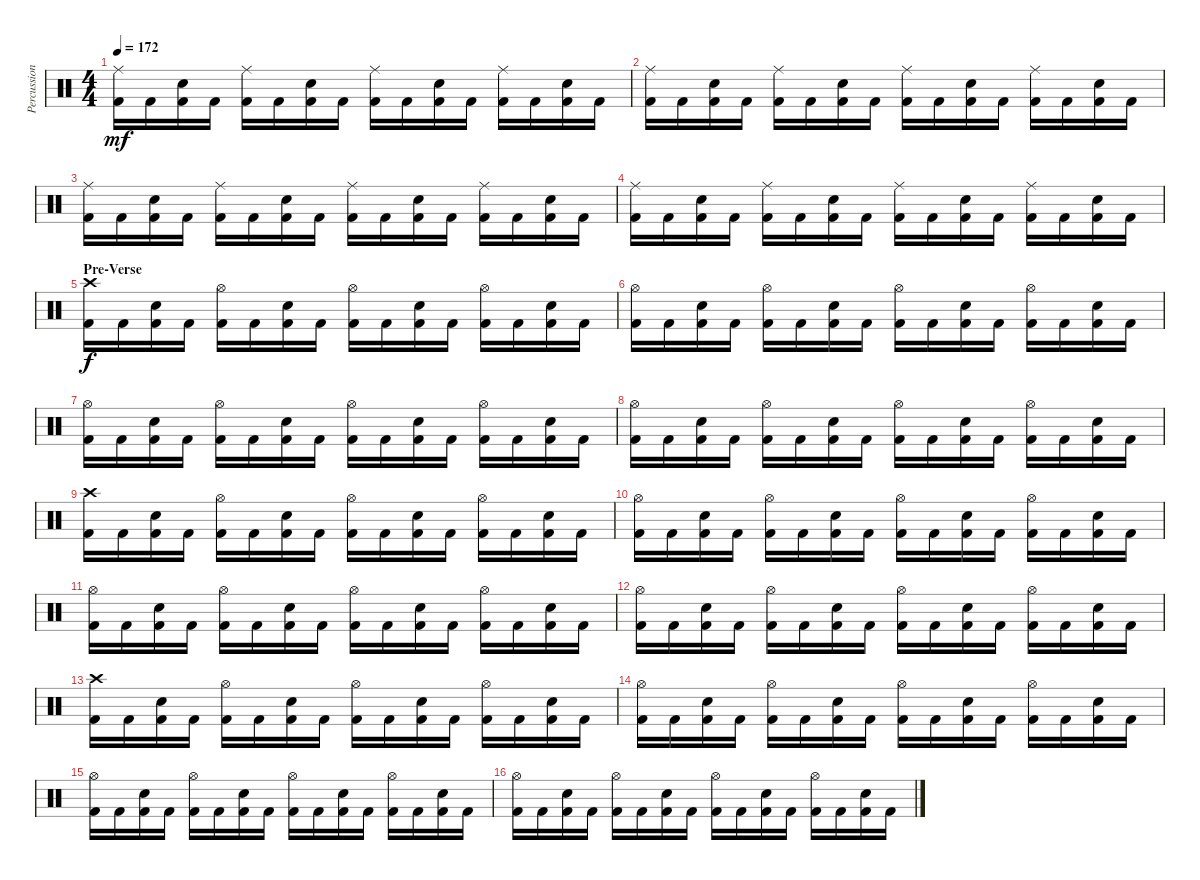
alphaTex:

\track ("Percussion" "Percussion") {instrument percussion}
\staff {score}
\articulation defaults
\ts (4 4)
\tempo 172
\clef neutral
\ks c
("Ride (middle)" "Kick (hit) 2").16{dy mf} "Kick (hit) 2".16 ("Electric Snare (hit)" "Kick (hit) 2").16 "Kick (hit) 2".16 ("Ride (middle)" "Kick (hit) 2").16 "Kick (hit) 2".16 ("Electric Snare (hit)" "Kick (hit) 2").16 "Kick (hit) 2".16 ("Ride (middle)" "Kick (hit) 2").16 "Kick (hit) 2".16 ("Electric Snare (hit)" "Kick (hit) 2").16 "Kick (hit) 2".16 ("Ride (middle)" "Kick (hit) 2").16 "Kick (hit) 2".16 ("Electric Snare (hit)" "Kick (hit) 2").16 "Kick (hit) 2".16 |
("Ride (middle)" "Kick (hit) 2").16 "Kick (hit) 2".16 ("Electric Snare (hit)" "Kick (hit) 2").16 "Kick (hit) 2".16 ("Ride (middle)" "Kick (hit) 2").16 "Kick (hit) 2".16 ("Electric Snare (hit)" "Kick (hit) 2").16 "Kick (hit) 2".16 ("Ride (middle)" "Kick (hit) 2").16 "Kick (hit) 2".16 ("Electric Snare (hit)" "Kick (hit) 2").16 "Kick (hit) 2".16 ("Ride (middle)" "Kick (hit) 2").16 "Kick (hit) 2".16 ("Electric Snare (hit)" "Kick (hit) 2").16 "Kick (hit) 2".16 |
("Ride (middle)" "Kick (hit) 2").16 "Kick (hit) 2".16 ("Electric Snare (hit)" "Kick (hit) 2").16 "Kick (hit) 2".16 ("Ride (middle)" "Kick (hit) 2").16 "Kick (hit) 2".16 ("Electric Snare (hit)" "Kick (hit) 2").16 "Kick (hit) 2".16 ("Ride (middle)" "Kick (hit) 2").16 "Kick (hit) 2".16 ("Electric Snare (hit)" "Kick (hit) 2").16 "Kick (hit) 2".16 ("Ride (middle)" "Kick (hit) 2").16 "Kick (hit) 2".16 ("Electric Snare (hit)" "Kick (hit) 2").16 "Kick (hit) 2".16 |
("Ride (middle)" "Kick (hit) 2").16 "Kick (hit) 2".16 ("Electric Snare (hit)" "Kick (hit) 2").16 "Kick (hit) 2".16 ("Ride (middle)" "Kick (hit) 2").16 "Kick (hit) 2".16 ("Electric Snare (hit)" "Kick (hit) 2").16 "Kick (hit) 2".16 ("Ride (middle)" "Kick (hit) 2").16 "Kick (hit) 2".16 ("Electric Snare (hit)" "Kick (hit) 2").16 "Kick (hit) 2".16 ("Ride (middle)" "Kick (hit) 2").16 "Kick (hit) 2".16 ("Electric Snare (hit)" "Kick (hit) 2").16 "Kick (hit) 2".16 |
\section ("" "Pre-Verse")
("Crash high (hit)" "Kick (hit) 2").16{dy f} "Kick (hit) 2".16 ("Electric Snare (hit)" "Kick (hit) 2").16 "Kick (hit) 2".16 ("Hi-Hat (open)" "Kick (hit) 2").16 "Kick (hit) 2".16 ("Electric Snare (hit)" "Kick (hit) 2").16 "Kick (hit) 2".16 ("Hi-Hat (open)" "Kick (hit) 2").16 "Kick (hit) 2".16 ("Electric Snare (hit)" "Kick (hit) 2").16 "Kick (hit) 2".16 ("Hi-Hat (open)" "Kick (hit) 2").16 "Kick (hit) 2".16 ("Electric Snare (hit)" "Kick (hit) 2").16 "Kick (hit) 2".16 |
("Hi-Hat (open)" "Kick (hit) 2").16 "Kick (hit) 2".16 ("Electric Snare (hit)" "Kick (hit) 2").16 "Kick (hit) 2".16 ("Hi-Hat (open)" "Kick (hit) 2").16 "Kick (hit) 2".16 ("Electric Snare (hit)" "Kick (hit) 2").16 "Kick (hit) 2".16 ("Hi-Hat (open)" "Kick (hit) 2").16 "Kick (hit) 2".16 ("Electric Snare (hit)" "Kick (hit) 2").16 "Kick (hit) 2".16 ("Hi-Hat (open)" "Kick (hit) 2").16 "Kick (hit) 2".16 ("Electric Snare (hit)" "Kick (hit) 2").16 "Kick (hit) 2".16 |
("Hi-Hat (open)" "Kick (hit) 2").16 "Kick (hit) 2".16 ("Electric Snare (hit)" "Kick (hit) 2").16 "Kick (hit) 2".16 ("Hi-Hat (open)" "Kick (hit) 2").16 "Kick (hit) 2".16 ("Electric Snare (hit)" "Kick (hit) 2").16 "Kick (hit) 2".16 ("Hi-Hat (open)" "Kick (hit) 2").16 "Kick (hit) 2".16 ("Electric Snare (hit)" "Kick (hit) 2").16 "Kick (hit) 2".16 ("Hi-Hat (open)" "Kick (hit) 2").16 "Kick (hit) 2".16 ("Electric Snare (hit)" "Kick (hit) 2").16 "Kick (hit) 2".16 |
("Hi-Hat (open)" "Kick (hit) 2").16 "Kick (hit) 2".16 ("Electric Snare (hit)" "Kick (hit) 2").16 "Kick (hit) 2".16 ("Hi-Hat (open)" "Kick (hit) 2").16 "Kick (hit) 2".16 ("Electric Snare (hit)" "Kick (hit) 2").16 "Kick (hit) 2".16 ("Hi-Hat (open)" "Kick (hit) 2").16 "Kick (hit) 2".16 ("Electric Snare (hit)" "Kick (hit) 2").16 "Kick (hit) 2".16 ("Hi-Hat (open)" "Kick (hit) 2").16 "Kick (hit) 2".16 ("Electric Snare (hit)" "Kick (hit) 2").16 "Kick (hit) 2".16 |
("Crash high (hit)" "Kick (hit) 2").16 "Kick (hit) 2".16 ("Electric Snare (hit)" "Kick (hit) 2").16 "Kick (hit) 2".16 ("Hi-Hat (open)" "Kick (hit) 2").16 "Kick (hit) 2".16 ("Electric Snare (hit)" "Kick (hit) 2").16 "Kick (hit) 2".16 ("Hi-Hat (open)" "Kick (hit) 2").16 "Kick (hit) 2".16 ("Electric Snare (hit)" "Kick (hit) 2").16 "Kick (hit) 2".16 ("Hi-Hat (open)" "Kick (hit) 2").16 "Kick (hit) 2".16 ("Electric Snare (hit)" "Kick (hit) 2").16 "Kick (hit) 2".16 |
("Hi-Hat (open)" "Kick (hit) 2").16 "Kick (hit) 2".16 ("Electric Snare (hit)" "Kick (hit) 2").16 "Kick (hit) 2".16 ("Hi-Hat (open)" "Kick (hit) 2").16 "Kick (hit) 2".16 ("Electric Snare (hit)" "Kick (hit) 2").16 "Kick (hit) 2".16 ("Hi-Hat (open)" "Kick (hit) 2").16 "Kick (hit) 2".16 ("Electric Snare (hit)" "Kick (hit) 2").16 "Kick (hit) 2".16 ("Hi-Hat (open)" "Kick (hit) 2").16 "Kick (hit) 2".16 ("Electric Snare (hit)" "Kick (hit) 2").16 "Kick (hit) 2".16 |
("Hi-Hat (open)" "Kick (hit) 2").16 "Kick (hit) 2".16 ("Electric Snare (hit)" "Kick (hit) 2").16 "Kick (hit) 2".16 ("Hi-Hat (open)" "Kick (hit) 2").16 "Kick (hit) 2".16 ("Electric Snare (hit)" "Kick (hit) 2").16 "Kick (hit) 2".16 ("Hi-Hat (open)" "Kick (hit) 2").16 "Kick (hit) 2".16 ("Electric Snare (hit)" "Kick (hit) 2").16 "Kick (hit) 2".16 ("Hi-Hat (open)" "Kick (hit) 2").16 "Kick (hit) 2".16 ("Electric Snare (hit)" "Kick (hit) 2").16 "Kick (hit) 2".16 |
("Hi-Hat (open)" "Kick (hit) 2").16 "Kick (hit) 2".16 ("Electric Snare (hit)" "Kick (hit) 2").16 "Kick (hit) 2".16 ("Hi-Hat (open)" "Kick (hit) 2").16 "Kick (hit) 2".16 ("Electric Snare (hit)" "Kick (hit) 2").16 "Kick (hit) 2".16 ("Hi-Hat (open)" "Kick (hit) 2").16 "Kick (hit) 2".16 ("Electric Snare (hit)" "Kick (hit) 2").16 "Kick (hit) 2".16 ("Hi-Hat (open)" "Kick (hit) 2").16 "Kick (hit) 2".16 ("Electric Snare (hit)" "Kick (hit) 2").16 "Kick (hit) 2".16 |
("Crash high (hit)" "Kick (hit) 2").16 "Kick (hit) 2".16 ("Electric Snare (hit)" "Kick (hit) 2").16 "Kick (hit) 2".16 ("Hi-Hat (open)" "Kick (hit) 2").16 "Kick (hit) 2".16 ("Electric Snare (hit)" "Kick (hit) 2").16 "Kick (hit) 2".16 ("Hi-Hat (open)" "Kick (hit) 2").16 "Kick (hit) 2".16 ("Electric Snare (hit)" "Kick (hit) 2").16 "Kick (hit) 2".16 ("Hi-Hat (open)" "Kick (hit) 2").16 "Kick (hit) 2".16 ("Electric Snare (hit)" "Kick (hit) 2").16 "Kick (hit) 2".16 |
("Hi-Hat (open)" "Kick (hit) 2").16 "Kick (hit) 2".16 ("Electric Snare (hit)" "Kick (hit) 2").16 "Kick (hit) 2".16 ("Hi-Hat (open)" "Kick (hit) 2").16 "Kick (hit) 2".16 ("Electric Snare (hit)" "Kick (hit) 2").16 "Kick (hit) 2".16 ("Hi-Hat (open)" "Kick (hit) 2").16 "Kick (hit) 2".16 ("Electric Snare (hit)" "Kick (hit) 2").16 "Kick (hit) 2".16 ("Hi-Hat (open)" "Kick (hit) 2").16 "Kick (hit) 2".16 ("Electric Snare (hit)" "Kick (hit) 2").16 "Kick (hit) 2".16 |
("Hi-Hat (open)" "Kick (hit) 2").16 "Kick (hit) 2".16 ("Electric Snare (hit)" "Kick (hit) 2").16 "Kick (hit) 2".16 ("Hi-Hat (open)" "Kick (hit) 2").16 "Kick (hit) 2".16 ("Electric Snare (hit)" "Kick (hit) 2").16 "Kick (hit) 2".16 ("Hi-Hat (open)" "Kick (hit) 2").16 "Kick (hit) 2".16 ("Electric Snare (hit)" "Kick (hit) 2").16 "Kick (hit) 2".16 ("Hi-Hat (open)" "Kick (hit) 2").16 "Kick (hit) 2".16 ("Electric Snare (hit)" "Kick (hit) 2").16 "Kick (hit) 2".16 |
("Hi-Hat (open)" "Kick (hit) 2").16 "Kick (hit) 2".16 ("Electric Snare (hit)" "Kick (hit) 2").16 "Kick (hit) 2".16 ("Hi-Hat (open)" "Kick (hit) 2").16 "Kick (hit) 2".16 ("Electric Snare (hit)" "Kick (hit) 2").16 "Kick (hit) 2".16 ("Hi-Hat (open)" "Kick (hit) 2").16 "Kick (hit) 2".16 ("Electric Snare (hit)" "Kick (hit) 2").16 "Kick (hit) 2".16 ("Hi-Hat (open)" "Kick (hit) 2").16 "Kick (hit) 2".16 ("Electric Snare (hit)" "Kick (hit) 2").16 "Kick (hit) 2".16
